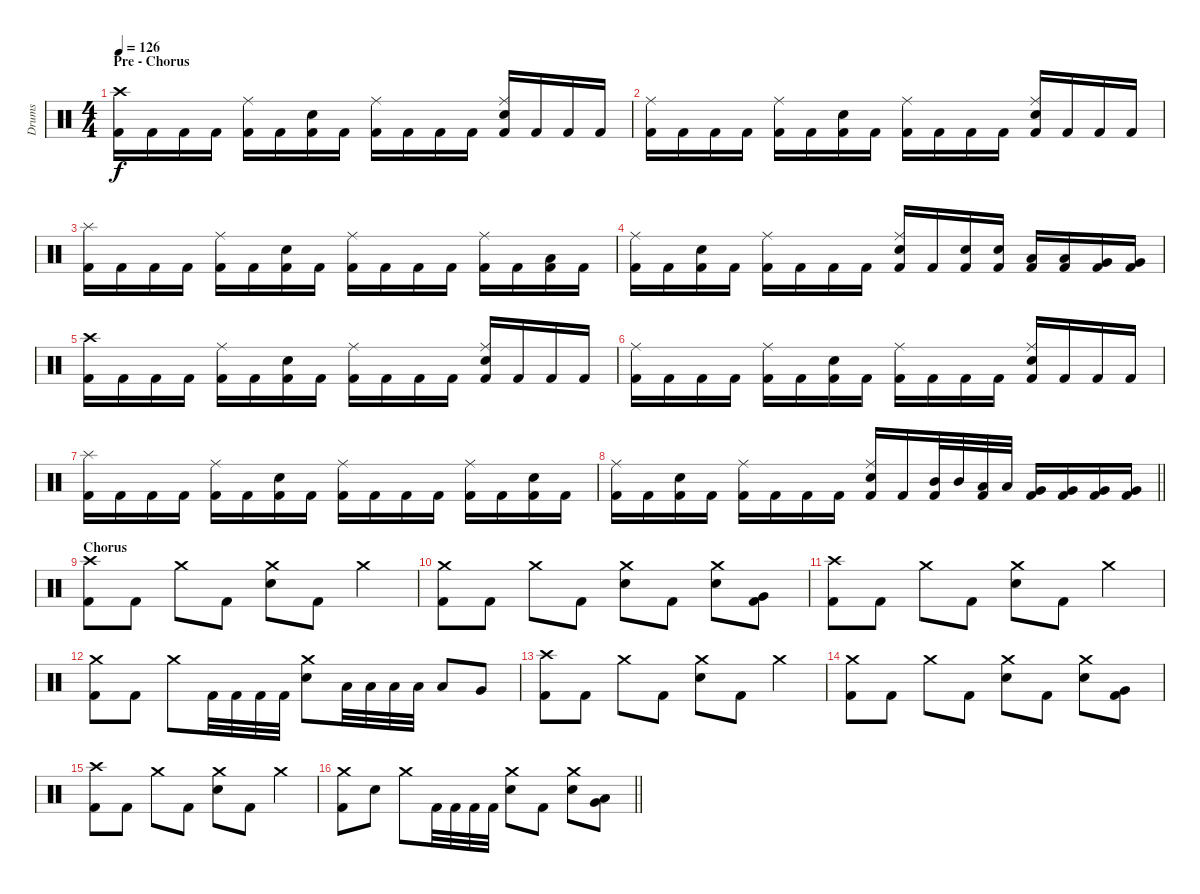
\track ("Drums" "Drums") {instrument percussion}
\staff {score}
\articulation defaults
\ts (4 4)
\section ("" "Pre - Chorus")
\tempo 126
\clef neutral
\ks c
("Crash high (hit)" "Kick (hit) 2").16{dy f} "Kick (hit) 2".16 "Kick (hit) 2".16 "Kick (hit) 2".16 ("Ride (middle)" "Kick (hit) 2").16 "Kick (hit) 2".16 ("Electric Snare (hit)" "Kick (hit) 2").16 "Kick (hit) 2".16 ("Ride (middle)" "Kick (hit) 2").16 "Kick (hit) 2".16 "Kick (hit) 2".16 "Kick (hit) 2".16 ("Ride (middle)" "Electric Snare (hit)" "Kick (hit) 2").16 "Kick (hit) 2".16 "Kick (hit) 2".16 "Kick (hit) 2".16 |
("Ride (middle)" "Kick (hit) 2").16 "Kick (hit) 2".16 "Kick (hit) 2".16 "Kick (hit) 2".16 ("Ride (middle)" "Kick (hit) 2").16 "Kick (hit) 2".16 ("Electric Snare (hit)" "Kick (hit) 2").16 "Kick (hit) 2".16 ("Ride (middle)" "Kick (hit) 2").16 "Kick (hit) 2".16 "Kick (hit) 2".16 "Kick (hit) 2".16 ("Ride (middle)" "Electric Snare (hit)" "Kick (hit) 2").16 "Kick (hit) 2".16 "Kick (hit) 2".16 "Kick (hit) 2".16 |
("Splash (hit)" "Kick (hit) 2").16 "Kick (hit) 2".16 "Kick (hit) 2".16 "Kick (hit) 2".16 ("Ride (middle)" "Kick (hit) 2").16 "Kick (hit) 2".16 ("Electric Snare (hit)" "Kick (hit) 2").16 "Kick (hit) 2".16 ("Ride (middle)" "Kick (hit) 2").16 "Kick (hit) 2".16 "Kick (hit) 2".16 "Kick (hit) 2".16 ("Ride (middle)" "Kick (hit) 2").16 "Kick (hit) 2".16 ("Low Tom (hit)" "Kick (hit) 2").16 "Kick (hit) 2".16 |
("Ride (middle)" "Kick (hit) 2").16 "Kick (hit) 2".16 ("Electric Snare (hit)" "Kick (hit) 2").16 "Kick (hit) 2".16 ("Ride (middle)" "Kick (hit) 2").16 "Kick (hit) 2".16 "Kick (hit) 2".16 "Kick (hit) 2".16 ("Ride (middle)" "Electric Snare (hit)" "Kick (hit) 2").16 "Kick (hit) 2".16 ("Electric Snare (hit)" "Kick (hit) 2").16 ("Electric Snare (hit)" "Kick (hit) 2").16 ("Low Tom (hit)" "Kick (hit) 2").16 ("Low Tom (hit)" "Kick (hit) 2").16 ("Very Low Tom (hit)" "Kick (hit) 2").16 ("Very Low Tom (hit)" "Kick (hit) 2").16 |
("Crash high (hit)" "Kick (hit) 2").16 "Kick (hit) 2".16 "Kick (hit) 2".16 "Kick (hit) 2".16 ("Ride (middle)" "Kick (hit) 2").16 "Kick (hit) 2".16 ("Electric Snare (hit)" "Kick (hit) 2").16 "Kick (hit) 2".16 ("Ride (middle)" "Kick (hit) 2").16 "Kick (hit) 2".16 "Kick (hit) 2".16 "Kick (hit) 2".16 ("Ride (middle)" "Electric Snare (hit)" "Kick (hit) 2").16 "Kick (hit) 2".16 "Kick (hit) 2".16 "Kick (hit) 2".16 |
("Ride (middle)" "Kick (hit) 2").16 "Kick (hit) 2".16 "Kick (hit) 2".16 "Kick (hit) 2".16 ("Ride (middle)" "Kick (hit) 2").16 "Kick (hit) 2".16 ("Electric Snare (hit)" "Kick (hit) 2").16 "Kick (hit) 2".16 ("Ride (middle)" "Kick (hit) 2").16 "Kick (hit) 2".16 "Kick (hit) 2".16 "Kick (hit) 2".16 ("Ride (middle)" "Electric Snare (hit)" "Kick (hit) 2").16 "Kick (hit) 2".16 "Kick (hit) 2".16 "Kick (hit) 2".16 |
("Splash (hit)" "Kick (hit) 2").16 "Kick (hit) 2".16 "Kick (hit) 2".16 "Kick (hit) 2".16 ("Ride (middle)" "Kick (hit) 2").16 "Kick (hit) 2".16 ("Electric Snare (hit)" "Kick (hit) 2").16 "Kick (hit) 2".16 ("Ride (middle)" "Kick (hit) 2").16 "Kick (hit) 2".16 "Kick (hit) 2".16 "Kick (hit) 2".16 ("Ride (middle)" "Kick (hit) 2").16 "Kick (hit) 2".16 ("Electric Snare (hit)" "Kick (hit) 2").16 "Kick (hit) 2".16 |
\barLineRight lightlight
("Ride (middle)" "Kick (hit) 2").16 "Kick (hit) 2".16 ("Electric Snare (hit)" "Kick (hit) 2").16 "Kick (hit) 2".16 ("Ride (middle)" "Kick (hit) 2").16 "Kick (hit) 2".16 "Kick (hit) 2".16 "Kick (hit) 2".16 ("Ride (middle)" "Electric Snare (hit)" "Kick (hit) 2").16 "Kick (hit) 2".16 ("Mid Tom (hit)" "Kick (hit) 2").32 "Mid Tom (hit)".32 ("Low Tom (hit)" "Kick (hit) 2").32 "Low Tom (hit)".32 ("Very Low Tom (hit)" "Kick (hit) 2").16 ("Very Low Tom (hit)" "Kick (hit) 2").16 ("Very Low Tom (hit)" "Kick (hit) 2").16 ("Very Low Tom (hit)" "Kick (hit) 2").16 |
\section ("" "Chorus")
("Crash high (hit)" "Kick (hit) 2").8 "Kick (hit) 2".8 "Crash medium (hit)".8 "Kick (hit) 2".8 ("Crash medium (hit)" "Electric Snare (hit)").8 "Kick (hit) 2".8 "Crash medium (hit)".4 |
("Crash medium (hit)" "Kick (hit) 2").8 "Kick (hit) 2".8 "Crash medium (hit)".8 "Kick (hit) 2".8 ("Crash medium (hit)" "Electric Snare (hit)").8 "Kick (hit) 2".8 ("Crash medium (hit)" "Electric Snare (hit)").8 ("Very Low Tom (hit)" "Kick (hit) 2").8 |
("Crash high (hit)" "Kick (hit) 2").8 "Kick (hit) 2".8 "Crash medium (hit)".8 "Kick (hit) 2".8 ("Crash medium (hit)" "Electric Snare (hit)").8 "Kick (hit) 2".8 "Crash medium (hit)".4 |
("Crash medium (hit)" "Kick (hit) 2").8 "Kick (hit) 2".8 "Crash medium (hit)".8 "Kick (hit) 2".32 "Kick (hit) 2".32 "Kick (hit) 2".32 "Kick (hit) 2".32 ("Crash medium (hit)" "Electric Snare (hit)").8 "Low Tom (hit)".32 "Low Tom (hit)".32 "Low Tom (hit)".32 "Low Tom (hit)".32 "Low Tom (hit)".8 "Very Low Tom (hit)".8 |
("Crash high (hit)" "Kick (hit) 2").8 "Kick (hit) 2".8 "Crash medium (hit)".8 "Kick (hit) 2".8 ("Crash medium (hit)" "Electric Snare (hit)").8 "Kick (hit) 2".8 "Crash medium (hit)".4 |
("Crash medium (hit)" "Kick (hit) 2").8 "Kick (hit) 2".8 "Crash medium (hit)".8 "Kick (hit) 2".8 ("Crash medium (hit)" "Electric Snare (hit)").8 "Kick (hit) 2".8 ("Crash medium (hit)" "Electric Snare (hit)").8 ("Very Low Tom (hit)" "Kick (hit) 2").8 |
("Crash high (hit)" "Kick (hit) 2").8 "Kick (hit) 2".8 "Crash medium (hit)".8 "Kick (hit) 2".8 ("Crash medium (hit)" "Electric Snare (hit)").8 "Kick (hit) 2".8 "Crash medium (hit)".4 |
\barLineRight lightlight
("Crash medium (hit)" "Kick (hit) 2").8 "Electric Snare (hit)".8 "Crash medium (hit)".8 "Kick (hit) 2".32 "Kick (hit) 2".32 "Kick (hit) 2".32 "Kick (hit) 2".32 ("Crash medium (hit)" "Electric Snare (hit)").8 "Kick (hit) 2".8 ("Crash medium (hit)" "Electric Snare (hit)").8 ("Low Tom (hit)" "Very Low Tom (hit)").8
